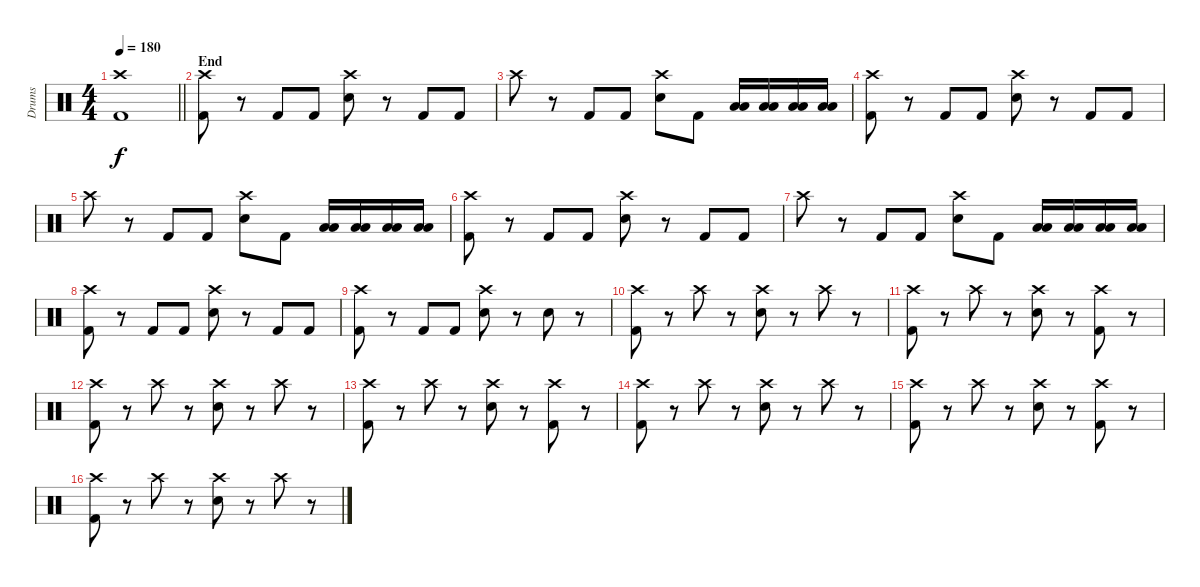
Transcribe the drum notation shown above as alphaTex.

\track ("Drums" "Drums") {instrument percussion}
\staff {score}
\articulation defaults
\ts (4 4)
\tempo 180
\clef neutral
\barLineRight lightlight
\ks c
("Crash high (hit)" "Kick (hit) 2").1{dy f} |
\section ("" "End")
("Crash high (hit)" "Kick (hit) 2").8 r.8 "Kick (hit) 2".8 "Kick (hit) 2".8 ("Crash high (hit)" "Snare (hit) 2").8 r.8 "Kick (hit) 2".8 "Kick (hit) 2".8 |
"Crash high (hit)".8 r.8 "Kick (hit) 2".8 "Kick (hit) 2".8 ("Crash high (hit)" "Snare (hit) 2").8 "Kick (hit) 2".8 ("Low Tom (hit)" "Low Tom (hit)").16 ("Low Tom (hit)" "Low Tom (hit)").16 ("Low Floor Tom (hit)" "Low Floor Tom (hit)").16 ("Low Floor Tom (hit)" "Low Floor Tom (hit)").16 |
("Crash high (hit)" "Kick (hit) 2").8 r.8 "Kick (hit) 2".8 "Kick (hit) 2".8 ("Crash high (hit)" "Snare (hit) 2").8 r.8 "Kick (hit) 2".8 "Kick (hit) 2".8 |
"Crash high (hit)".8 r.8 "Kick (hit) 2".8 "Kick (hit) 2".8 ("Crash high (hit)" "Snare (hit) 2").8 "Kick (hit) 2".8 ("Low Tom (hit)" "Low Tom (hit)").16 ("Low Tom (hit)" "Low Tom (hit)").16 ("Low Floor Tom (hit)" "Low Floor Tom (hit)").16 ("Low Floor Tom (hit)" "Low Floor Tom (hit)").16 |
("Crash high (hit)" "Kick (hit) 2").8 r.8 "Kick (hit) 2".8 "Kick (hit) 2".8 ("Crash high (hit)" "Snare (hit) 2").8 r.8 "Kick (hit) 2".8 "Kick (hit) 2".8 |
"Crash high (hit)".8 r.8 "Kick (hit) 2".8 "Kick (hit) 2".8 ("Crash high (hit)" "Snare (hit) 2").8 "Kick (hit) 2".8 ("Low Tom (hit)" "Low Tom (hit)").16 ("Low Tom (hit)" "Low Tom (hit)").16 ("Low Floor Tom (hit)" "Low Floor Tom (hit)").16 ("Low Floor Tom (hit)" "Low Floor Tom (hit)").16 |
("Crash high (hit)" "Kick (hit) 2").8 r.8 "Kick (hit) 2".8 "Kick (hit) 2".8 ("Crash high (hit)" "Snare (hit) 2").8 r.8 "Kick (hit) 2".8 "Kick (hit) 2".8 |
("Crash high (hit)" "Kick (hit) 2").8 r.8 "Kick (hit) 2".8 "Kick (hit) 2".8 ("Crash high (hit)" "Snare (hit) 2").8 r.8 "Snare (hit) 2".8 r.8 |
("Crash high (hit)" "Kick (hit) 2").8 r.8 "Crash high (hit)".8 r.8 ("Crash high (hit)" "Snare (hit) 2").8 r.8 "Crash high (hit)".8 r.8 |
("Crash high (hit)" "Kick (hit) 2").8 r.8 "Crash high (hit)".8 r.8 ("Crash high (hit)" "Snare (hit) 2").8 r.8 ("Crash high (hit)" "Kick (hit) 2").8 r.8 |
("Crash high (hit)" "Kick (hit) 2").8 r.8 "Crash high (hit)".8 r.8 ("Crash high (hit)" "Snare (hit) 2").8 r.8 "Crash high (hit)".8 r.8 |
("Crash high (hit)" "Kick (hit) 2").8 r.8 "Crash high (hit)".8 r.8 ("Crash high (hit)" "Snare (hit) 2").8 r.8 ("Crash high (hit)" "Kick (hit) 2").8 r.8 |
("Crash high (hit)" "Kick (hit) 2").8 r.8 "Crash high (hit)".8 r.8 ("Crash high (hit)" "Snare (hit) 2").8 r.8 "Crash high (hit)".8 r.8 |
("Crash high (hit)" "Kick (hit) 2").8 r.8 "Crash high (hit)".8 r.8 ("Crash high (hit)" "Snare (hit) 2").8 r.8 ("Crash high (hit)" "Kick (hit) 2").8 r.8 |
("Crash high (hit)" "Kick (hit) 2").8 r.8 "Crash high (hit)".8 r.8 ("Crash high (hit)" "Snare (hit) 2").8 r.8 "Crash high (hit)".8 r.8
